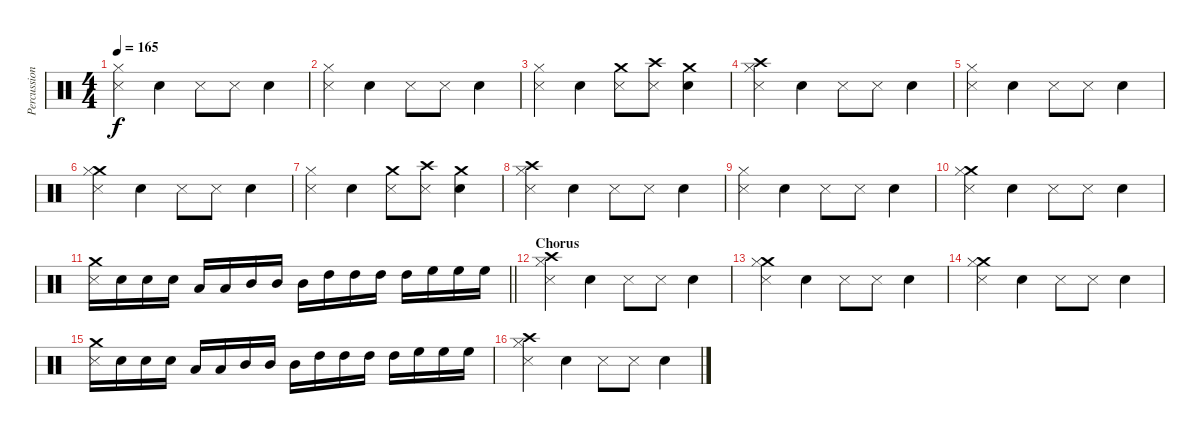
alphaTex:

\track ("Percussion" "Percussion") {instrument percussion}
\staff {score}
\articulation defaults
\ts (4 4)
\tempo 165
\clef neutral
\ks c
("Metronome (hit)" "Hi-Hat (closed)").4{dy f} "Electric Snare (hit)".4 "Metronome (hit)".8 "Metronome (hit)".8 "Electric Snare (hit)".4 |
("Metronome (hit)" "Hi-Hat (closed)").4 "Electric Snare (hit)".4 "Metronome (hit)".8 "Metronome (hit)".8 "Electric Snare (hit)".4 |
("Metronome (hit)" "Hi-Hat (closed)").4 "Electric Snare (hit)".4 ("Metronome (hit)" "Crash medium (hit)").8 ("Metronome (hit)" "Crash high (hit)").8 ("Crash medium (hit)" "Electric Snare (hit)").4 |
("Metronome (hit)" "Crash high (hit)" "Hi-Hat (closed)").4 "Electric Snare (hit)".4 "Metronome (hit)".8 "Metronome (hit)".8 "Electric Snare (hit)".4 |
("Metronome (hit)" "Hi-Hat (closed)").4 "Electric Snare (hit)".4 "Metronome (hit)".8 "Metronome (hit)".8 "Electric Snare (hit)".4 |
("Metronome (hit)" "Crash medium (hit)" "Hi-Hat (closed)").4 "Electric Snare (hit)".4 "Metronome (hit)".8 "Metronome (hit)".8 "Electric Snare (hit)".4 |
("Metronome (hit)" "Hi-Hat (closed)").4 "Electric Snare (hit)".4 ("Metronome (hit)" "Crash medium (hit)").8 ("Metronome (hit)" "Crash high (hit)").8 ("Crash medium (hit)" "Electric Snare (hit)").4 |
("Metronome (hit)" "Crash high (hit)" "Hi-Hat (closed)").4 "Electric Snare (hit)".4 "Metronome (hit)".8 "Metronome (hit)".8 "Electric Snare (hit)".4 |
("Metronome (hit)" "Hi-Hat (closed)").4 "Electric Snare (hit)".4 "Metronome (hit)".8 "Metronome (hit)".8 "Electric Snare (hit)".4 |
("Metronome (hit)" "Crash medium (hit)" "Hi-Hat (closed)").4 "Electric Snare (hit)".4 "Metronome (hit)".8 "Metronome (hit)".8 "Electric Snare (hit)".4 |
\barLineRight lightlight
("Metronome (hit)" "Crash medium (hit)").16 "Electric Snare (hit)".16 "Electric Snare (hit)".16 "Electric Snare (hit)".16 "Low Tom (hit)".16 "Low Tom (hit)".16 "Mid Tom (hit)".16 "Mid Tom (hit)".16 "Mid Tom (hit)".16 "High Tom (hit)".16 "High Tom (hit)".16 "High Tom (hit)".16 "High Tom (hit)".16 "High Floor Tom (hit)".16 "High Floor Tom (hit)".16 "High Floor Tom (hit)".16 |
\section ("" "Chorus")
("Metronome (hit)" "Crash high (hit)" "Hi-Hat (closed)").4 "Electric Snare (hit)".4 "Metronome (hit)".8 "Metronome (hit)".8 "Electric Snare (hit)".4 |
("Metronome (hit)" "Crash medium (hit)" "Hi-Hat (closed)").4 "Electric Snare (hit)".4 "Metronome (hit)".8 "Metronome (hit)".8 "Electric Snare (hit)".4 |
("Metronome (hit)" "Crash medium (hit)" "Hi-Hat (closed)").4 "Electric Snare (hit)".4 "Metronome (hit)".8 "Metronome (hit)".8 "Electric Snare (hit)".4 |
("Metronome (hit)" "Crash medium (hit)").16 "Electric Snare (hit)".16 "Electric Snare (hit)".16 "Electric Snare (hit)".16 "Low Tom (hit)".16 "Low Tom (hit)".16 "Mid Tom (hit)".16 "Mid Tom (hit)".16 "Mid Tom (hit)".16 "High Tom (hit)".16 "High Tom (hit)".16 "High Tom (hit)".16 "High Tom (hit)".16 "High Floor Tom (hit)".16 "High Floor Tom (hit)".16 "High Floor Tom (hit)".16 |
("Metronome (hit)" "Crash high (hit)" "Hi-Hat (closed)").4 "Electric Snare (hit)".4 "Metronome (hit)".8 "Metronome (hit)".8 "Electric Snare (hit)".4
